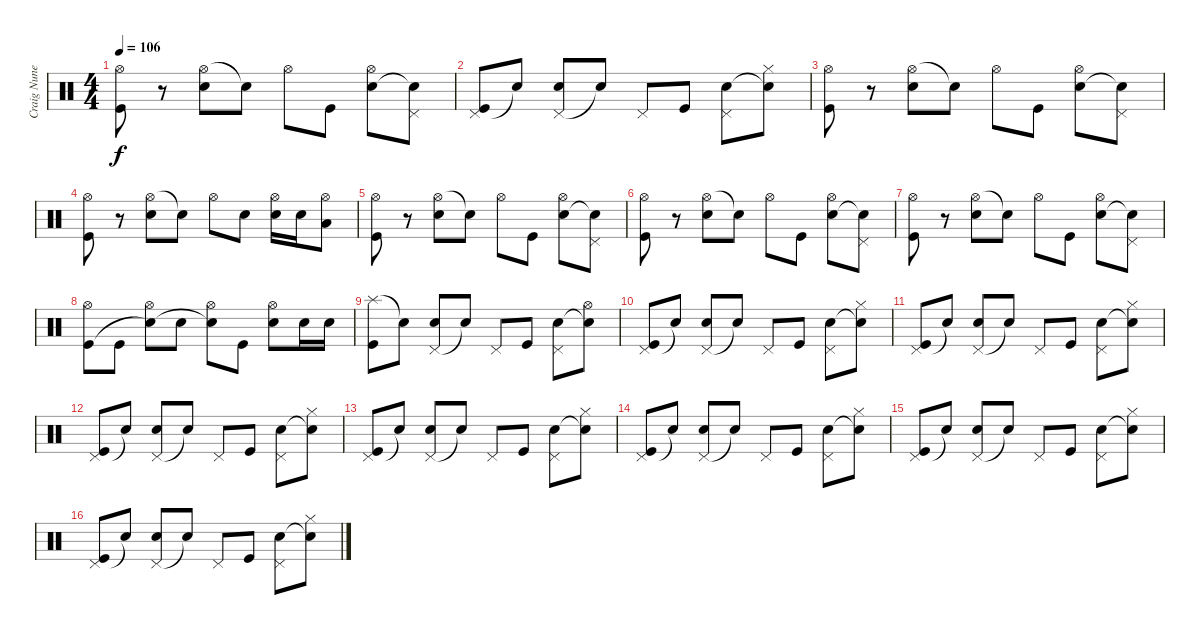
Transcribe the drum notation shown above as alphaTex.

\track ("Craig Nunenmacher (Drums)" "Craig Nune") {instrument percussion}
\staff {score}
\articulation defaults
\ts (4 4)
\tempo 106
\clef neutral
\ks c
("Hi-Hat (open)" "Kick (hit)").8{dy f} r.8 ("Hi-Hat (open)" "Electric Snare (hit)").8 "Snare (hit)"{t}.8 "Hi-Hat (open)".8 "Kick (hit)".8 ("Hi-Hat (open)" "Electric Snare (hit)").8 ("Pedal Hi-Hat (hit)" "Snare (hit)"{t}).8 |
("Pedal Hi-Hat (hit)" "Kick (hit)").8 "Snare (hit)"{t}.8 ("Pedal Hi-Hat (hit)" "Electric Snare (hit)").8 "Snare (hit)"{t}.8 "Pedal Hi-Hat (hit)".8 "Kick (hit)".8 ("Pedal Hi-Hat (hit)" "Electric Snare (hit)").8 ("Hi-Hat (closed)" "Snare (hit)"{t}).8 |
("Hi-Hat (open)" "Kick (hit)").8 r.8 ("Hi-Hat (open)" "Electric Snare (hit)").8 "Snare (hit)"{t}.8 "Hi-Hat (open)".8 "Kick (hit)".8 ("Hi-Hat (open)" "Electric Snare (hit)").8 ("Pedal Hi-Hat (hit)" "Snare (hit)"{t}).8 |
("Hi-Hat (open)" "Kick (hit)").8 r.8 ("Hi-Hat (open)" "Electric Snare (hit)").8 "Snare (hit)"{t}.8 "Hi-Hat (open)".8 "Electric Snare (hit)".8 ("Hi-Hat (open)" "Electric Snare (hit)").16 "Electric Snare (hit)".16 ("Hi-Hat (open)" "Low Floor Tom (hit)").8 |
("Hi-Hat (open)" "Kick (hit)").8 r.8 ("Hi-Hat (open)" "Electric Snare (hit)").8 "Snare (hit)"{t}.8 "Hi-Hat (open)".8 "Kick (hit)".8 ("Hi-Hat (open)" "Electric Snare (hit)").8 ("Pedal Hi-Hat (hit)" "Snare (hit)"{t}).8 |
("Hi-Hat (open)" "Kick (hit)").8 r.8 ("Hi-Hat (open)" "Electric Snare (hit)").8 "Snare (hit)"{t}.8 "Hi-Hat (open)".8 "Kick (hit)".8 ("Hi-Hat (open)" "Electric Snare (hit)").8 ("Pedal Hi-Hat (hit)" "Snare (hit)"{t}).8 |
("Hi-Hat (open)" "Kick (hit)").8 r.8 ("Hi-Hat (open)" "Electric Snare (hit)").8 "Snare (hit)"{t}.8 "Hi-Hat (open)".8 "Kick (hit)".8 ("Hi-Hat (open)" "Electric Snare (hit)").8 ("Pedal Hi-Hat (hit)" "Snare (hit)"{t}).8 |
("Hi-Hat (open)" "Kick (hit)").8 "Kick (hit)".8 ("Hi-Hat (open)" "Snare (hit)"{t}).8 "Electric Snare (hit)".8 ("Hi-Hat (open)" "Snare (hit)"{t}).8 "Kick (hit)".8 ("Hi-Hat (open)" "Electric Snare (hit)").8 "Electric Snare (hit)".16 "Electric Snare (hit)".16 |
("Splash (hit)" "Kick (hit)").8 "Snare (hit)"{t}.8 ("Pedal Hi-Hat (hit)" "Electric Snare (hit)").8 "Snare (hit)"{t}.8 "Pedal Hi-Hat (hit)".8 "Kick (hit)".8 ("Pedal Hi-Hat (hit)" "Electric Snare (hit)").8 ("Hi-Hat (open)" "Snare (hit)"{t}).8 |
("Pedal Hi-Hat (hit)" "Kick (hit)").8 "Snare (hit)"{t}.8 ("Pedal Hi-Hat (hit)" "Electric Snare (hit)").8 "Snare (hit)"{t}.8 "Pedal Hi-Hat (hit)".8 "Kick (hit)".8 ("Pedal Hi-Hat (hit)" "Electric Snare (hit)").8 ("Hi-Hat (closed)" "Snare (hit)"{t}).8 |
("Pedal Hi-Hat (hit)" "Kick (hit)").8 "Snare (hit)"{t}.8 ("Pedal Hi-Hat (hit)" "Electric Snare (hit)").8 "Snare (hit)"{t}.8 "Pedal Hi-Hat (hit)".8 "Kick (hit)".8 ("Pedal Hi-Hat (hit)" "Electric Snare (hit)").8 ("Hi-Hat (closed)" "Snare (hit)"{t}).8 |
("Pedal Hi-Hat (hit)" "Kick (hit)").8 "Snare (hit)"{t}.8 ("Pedal Hi-Hat (hit)" "Electric Snare (hit)").8 "Snare (hit)"{t}.8 "Pedal Hi-Hat (hit)".8 "Kick (hit)".8 ("Pedal Hi-Hat (hit)" "Electric Snare (hit)").8 ("Hi-Hat (closed)" "Snare (hit)"{t}).8 |
("Pedal Hi-Hat (hit)" "Kick (hit)").8 "Snare (hit)"{t}.8 ("Pedal Hi-Hat (hit)" "Electric Snare (hit)").8 "Snare (hit)"{t}.8 "Pedal Hi-Hat (hit)".8 "Kick (hit)".8 ("Pedal Hi-Hat (hit)" "Electric Snare (hit)").8 ("Hi-Hat (closed)" "Snare (hit)"{t}).8 |
("Pedal Hi-Hat (hit)" "Kick (hit)").8 "Snare (hit)"{t}.8 ("Pedal Hi-Hat (hit)" "Electric Snare (hit)").8 "Snare (hit)"{t}.8 "Pedal Hi-Hat (hit)".8 "Kick (hit)".8 ("Pedal Hi-Hat (hit)" "Electric Snare (hit)").8 ("Hi-Hat (closed)" "Snare (hit)"{t}).8 |
("Pedal Hi-Hat (hit)" "Kick (hit)").8 "Snare (hit)"{t}.8 ("Pedal Hi-Hat (hit)" "Electric Snare (hit)").8 "Snare (hit)"{t}.8 "Pedal Hi-Hat (hit)".8 "Kick (hit)".8 ("Pedal Hi-Hat (hit)" "Electric Snare (hit)").8 ("Hi-Hat (closed)" "Snare (hit)"{t}).8 |
("Pedal Hi-Hat (hit)" "Kick (hit)").8 "Snare (hit)"{t}.8 ("Pedal Hi-Hat (hit)" "Electric Snare (hit)").8 "Snare (hit)"{t}.8 "Pedal Hi-Hat (hit)".8 "Kick (hit)".8 ("Pedal Hi-Hat (hit)" "Electric Snare (hit)").8 ("Hi-Hat (closed)" "Snare (hit)"{t}).8
